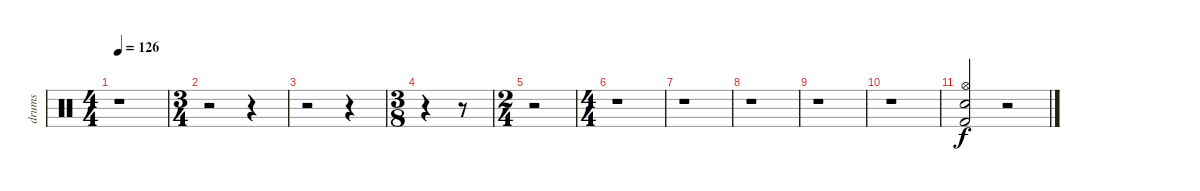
\track ("drums" "drums") {instrument percussion}
\staff {score}
\articulation defaults
\ts (4 4)
\tempo 126
\clef neutral
\ks c
r.1{dy f} |
\ts (3 4)
r.2 r.4 |
r.2 r.4 |
\ts (3 8)
r.4 r.8 |
\ts (2 4)
r.2 |
\ts (4 4)
r.1 |
r.1 |
r.1 |
r.1 |
r.1 |
("Snare (hit) 2" "Hi-Hat (open)" "Kick (hit) 2").2 r.2
